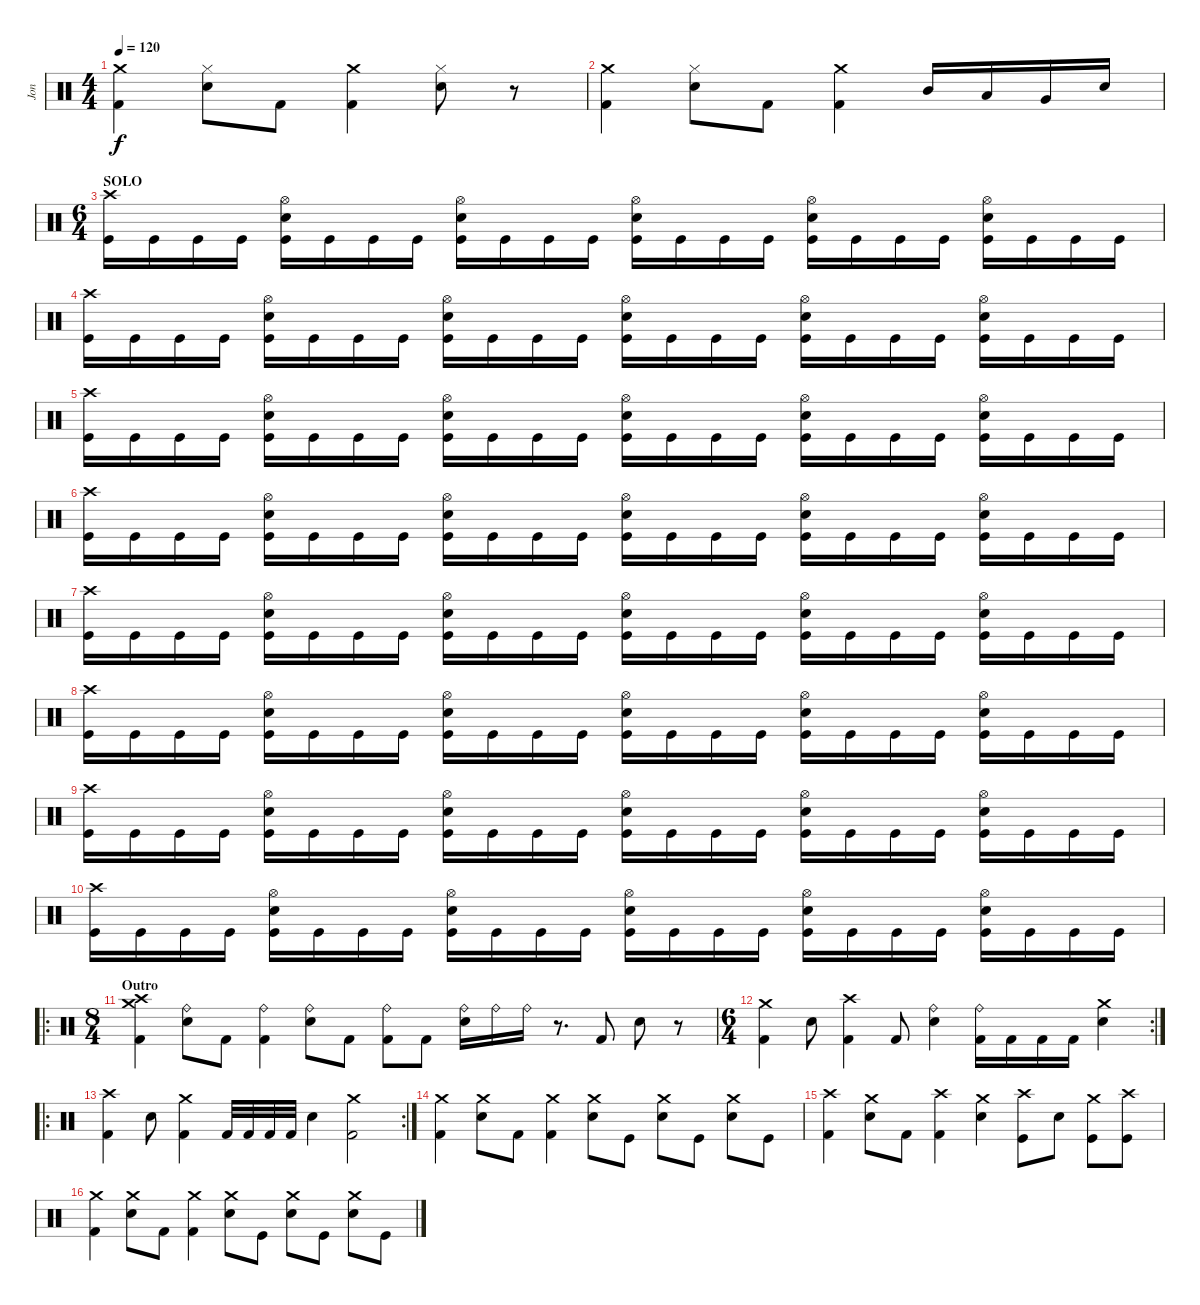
\track ("Jon" "Jon") {instrument percussion}
\staff {score}
\articulation defaults
\ts (4 4)
\tempo 120
\clef neutral
\ks c
("Crash medium (hit)" "Kick (hit) 2").4{dy f} ("Snare (hit) 2" "Hi-Hat (closed)").8 "Kick (hit) 2".8 ("Crash medium (hit)" "Kick (hit) 2").4 ("Snare (hit) 2" "Hi-Hat (closed)").8 r.8 |
("Crash medium (hit)" "Kick (hit) 2").4 ("Snare (hit) 2" "Hi-Hat (closed)").8 "Kick (hit) 2".8 ("Crash medium (hit)" "Kick (hit) 2").4 "Mid Tom (hit)".16 "Low Tom (hit)".16 "Very Low Tom (hit)".16 "Snare (hit) 2".16 |
\ts (6 4)
\section ("" "SOLO")
("Crash high (hit)" "Kick (hit)").16 "Kick (hit)".16 "Kick (hit)".16 "Kick (hit)".16 ("Hi-Hat (open)" "Snare (hit) 2" "Kick (hit)").16 "Kick (hit)".16 "Kick (hit)".16 "Kick (hit)".16 ("Hi-Hat (open)" "Snare (hit) 2" "Kick (hit)").16 "Kick (hit)".16 "Kick (hit)".16 "Kick (hit)".16 ("Hi-Hat (open)" "Snare (hit) 2" "Kick (hit)").16 "Kick (hit)".16 "Kick (hit)".16 "Kick (hit)".16 ("Hi-Hat (open)" "Snare (hit) 2" "Kick (hit)").16 "Kick (hit)".16 "Kick (hit)".16 "Kick (hit)".16 ("Hi-Hat (open)" "Snare (hit) 2" "Kick (hit)").16 "Kick (hit)".16 "Kick (hit)".16 "Kick (hit)".16 |
("Crash high (hit)" "Kick (hit)").16 "Kick (hit)".16 "Kick (hit)".16 "Kick (hit)".16 ("Hi-Hat (open)" "Snare (hit) 2" "Kick (hit)").16 "Kick (hit)".16 "Kick (hit)".16 "Kick (hit)".16 ("Hi-Hat (open)" "Snare (hit) 2" "Kick (hit)").16 "Kick (hit)".16 "Kick (hit)".16 "Kick (hit)".16 ("Hi-Hat (open)" "Snare (hit) 2" "Kick (hit)").16 "Kick (hit)".16 "Kick (hit)".16 "Kick (hit)".16 ("Hi-Hat (open)" "Snare (hit) 2" "Kick (hit)").16 "Kick (hit)".16 "Kick (hit)".16 "Kick (hit)".16 ("Hi-Hat (open)" "Snare (hit) 2" "Kick (hit)").16 "Kick (hit)".16 "Kick (hit)".16 "Kick (hit)".16 |
("Crash high (hit)" "Kick (hit)").16 "Kick (hit)".16 "Kick (hit)".16 "Kick (hit)".16 ("Hi-Hat (open)" "Snare (hit) 2" "Kick (hit)").16 "Kick (hit)".16 "Kick (hit)".16 "Kick (hit)".16 ("Hi-Hat (open)" "Snare (hit) 2" "Kick (hit)").16 "Kick (hit)".16 "Kick (hit)".16 "Kick (hit)".16 ("Hi-Hat (open)" "Snare (hit) 2" "Kick (hit)").16 "Kick (hit)".16 "Kick (hit)".16 "Kick (hit)".16 ("Hi-Hat (open)" "Snare (hit) 2" "Kick (hit)").16 "Kick (hit)".16 "Kick (hit)".16 "Kick (hit)".16 ("Hi-Hat (open)" "Snare (hit) 2" "Kick (hit)").16 "Kick (hit)".16 "Kick (hit)".16 "Kick (hit)".16 |
("Crash high (hit)" "Kick (hit)").16 "Kick (hit)".16 "Kick (hit)".16 "Kick (hit)".16 ("Hi-Hat (open)" "Snare (hit) 2" "Kick (hit)").16 "Kick (hit)".16 "Kick (hit)".16 "Kick (hit)".16 ("Hi-Hat (open)" "Snare (hit) 2" "Kick (hit)").16 "Kick (hit)".16 "Kick (hit)".16 "Kick (hit)".16 ("Hi-Hat (open)" "Snare (hit) 2" "Kick (hit)").16 "Kick (hit)".16 "Kick (hit)".16 "Kick (hit)".16 ("Hi-Hat (open)" "Snare (hit) 2" "Kick (hit)").16 "Kick (hit)".16 "Kick (hit)".16 "Kick (hit)".16 ("Hi-Hat (open)" "Snare (hit) 2" "Kick (hit)").16 "Kick (hit)".16 "Kick (hit)".16 "Kick (hit)".16 |
("Crash high (hit)" "Kick (hit)").16 "Kick (hit)".16 "Kick (hit)".16 "Kick (hit)".16 ("Hi-Hat (open)" "Snare (hit) 2" "Kick (hit)").16 "Kick (hit)".16 "Kick (hit)".16 "Kick (hit)".16 ("Hi-Hat (open)" "Snare (hit) 2" "Kick (hit)").16 "Kick (hit)".16 "Kick (hit)".16 "Kick (hit)".16 ("Hi-Hat (open)" "Snare (hit) 2" "Kick (hit)").16 "Kick (hit)".16 "Kick (hit)".16 "Kick (hit)".16 ("Hi-Hat (open)" "Snare (hit) 2" "Kick (hit)").16 "Kick (hit)".16 "Kick (hit)".16 "Kick (hit)".16 ("Hi-Hat (open)" "Snare (hit) 2" "Kick (hit)").16 "Kick (hit)".16 "Kick (hit)".16 "Kick (hit)".16 |
("Crash high (hit)" "Kick (hit)").16 "Kick (hit)".16 "Kick (hit)".16 "Kick (hit)".16 ("Hi-Hat (open)" "Snare (hit) 2" "Kick (hit)").16 "Kick (hit)".16 "Kick (hit)".16 "Kick (hit)".16 ("Hi-Hat (open)" "Snare (hit) 2" "Kick (hit)").16 "Kick (hit)".16 "Kick (hit)".16 "Kick (hit)".16 ("Hi-Hat (open)" "Snare (hit) 2" "Kick (hit)").16 "Kick (hit)".16 "Kick (hit)".16 "Kick (hit)".16 ("Hi-Hat (open)" "Snare (hit) 2" "Kick (hit)").16 "Kick (hit)".16 "Kick (hit)".16 "Kick (hit)".16 ("Hi-Hat (open)" "Snare (hit) 2" "Kick (hit)").16 "Kick (hit)".16 "Kick (hit)".16 "Kick (hit)".16 |
("Crash high (hit)" "Kick (hit)").16 "Kick (hit)".16 "Kick (hit)".16 "Kick (hit)".16 ("Hi-Hat (open)" "Snare (hit) 2" "Kick (hit)").16 "Kick (hit)".16 "Kick (hit)".16 "Kick (hit)".16 ("Hi-Hat (open)" "Snare (hit) 2" "Kick (hit)").16 "Kick (hit)".16 "Kick (hit)".16 "Kick (hit)".16 ("Hi-Hat (open)" "Snare (hit) 2" "Kick (hit)").16 "Kick (hit)".16 "Kick (hit)".16 "Kick (hit)".16 ("Hi-Hat (open)" "Snare (hit) 2" "Kick (hit)").16 "Kick (hit)".16 "Kick (hit)".16 "Kick (hit)".16 ("Hi-Hat (open)" "Snare (hit) 2" "Kick (hit)").16 "Kick (hit)".16 "Kick (hit)".16 "Kick (hit)".16 |
("Crash high (hit)" "Kick (hit)").16 "Kick (hit)".16 "Kick (hit)".16 "Kick (hit)".16 ("Hi-Hat (open)" "Snare (hit) 2" "Kick (hit)").16 "Kick (hit)".16 "Kick (hit)".16 "Kick (hit)".16 ("Hi-Hat (open)" "Snare (hit) 2" "Kick (hit)").16 "Kick (hit)".16 "Kick (hit)".16 "Kick (hit)".16 ("Hi-Hat (open)" "Snare (hit) 2" "Kick (hit)").16 "Kick (hit)".16 "Kick (hit)".16 "Kick (hit)".16 ("Hi-Hat (open)" "Snare (hit) 2" "Kick (hit)").16 "Kick (hit)".16 "Kick (hit)".16 "Kick (hit)".16 ("Hi-Hat (open)" "Snare (hit) 2" "Kick (hit)").16 "Kick (hit)".16 "Kick (hit)".16 "Kick (hit)".16 |
\ro
\ts (8 4)
\section ("" "Outro")
("Crash medium (hit)" "Crash high (hit)" "Kick (hit) 2").4 ("Ride (bell)" "Snare (hit) 2").8 "Kick (hit) 2".8 ("Ride (bell)" "Kick (hit) 2").4 ("Ride (bell)" "Snare (hit) 2").8 "Kick (hit) 2".8 ("Ride (bell)" "Kick (hit) 2").8 "Kick (hit) 2".8 ("Ride (bell)" "Snare (hit) 2").16 "Ride (bell)".16 "Ride (bell)".16 r.8{d} "Kick (hit) 2".8 "Snare (hit) 2".8 r.8 |
\rc 2
\ts (6 4)
("Crash medium (hit)" "Kick (hit) 2").4 "Snare (hit) 2".8 ("Crash high (hit)" "Kick (hit) 2").4 "Kick (hit) 2".8 ("Ride (bell)" "Snare (hit) 2").4 ("Ride (bell)" "Kick (hit) 2").16 "Kick (hit) 2".16 "Kick (hit) 2".16 "Kick (hit) 2".16 ("Crash medium (hit)" "Snare (hit) 2").4 |
\ro
\rc 2
("Crash high (hit)" "Kick (hit) 2").4 "Snare (hit) 2".8 ("Crash medium (hit)" "Kick (hit) 2").4 "Kick (hit) 2".32 "Kick (hit) 2".32 "Kick (hit) 2".32 "Kick (hit) 2".32 "Snare (hit) 2".4 ("Crash medium (hit)" "Kick (hit) 2").2 |
("Crash medium (hit)" "Kick (hit) 2").4 ("Snare (hit) 2" "Crash medium (hit)").8 "Kick (hit) 2".8 ("Crash medium (hit)" "Kick (hit) 2").4 ("Snare (hit) 2" "Crash medium (hit)").8 "Kick (hit)".8 ("Crash medium (hit)" "Snare (hit) 2").8 "Kick (hit)".8 ("Crash medium (hit)" "Snare (hit) 2").8 "Kick (hit)".8 |
("Crash high (hit)" "Kick (hit) 2").4 ("Snare (hit) 2" "Crash medium (hit)").8 "Kick (hit) 2".8 ("Crash high (hit)" "Kick (hit) 2").4 ("Snare (hit) 2" "Crash medium (hit)").4 ("Crash high (hit)" "Kick (hit)").8 "Snare (hit) 2".8 ("Crash medium (hit)" "Kick (hit)").8 ("Crash high (hit)" "Kick (hit)").8 |
("Crash medium (hit)" "Kick (hit) 2").4 ("Snare (hit) 2" "Crash medium (hit)").8 "Kick (hit) 2".8 ("Crash medium (hit)" "Kick (hit) 2").4 ("Snare (hit) 2" "Crash medium (hit)").8 "Kick (hit)".8 ("Crash medium (hit)" "Snare (hit) 2").8 "Kick (hit)".8 ("Crash medium (hit)" "Snare (hit) 2").8 "Kick (hit)".8
